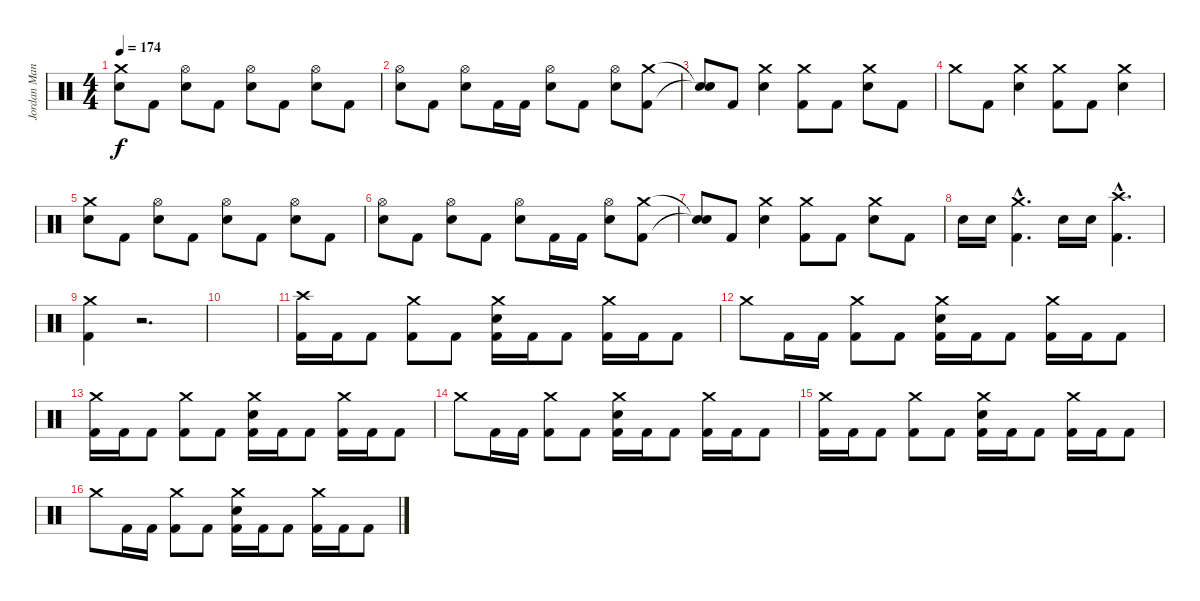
\track ("Jordan Manchino (Drums)" "Jordan Man") {instrument percussion}
\staff {score}
\articulation defaults
\ts (4 4)
\tempo 174
\clef neutral
\ks c
("Crash medium (hit)" "Snare (hit) 2").8{dy f} "Kick (hit) 2".8 ("Hi-Hat (open)" "Snare (hit) 2").8 "Kick (hit) 2".8 ("Hi-Hat (open)" "Snare (hit) 2").8 "Kick (hit) 2".8 ("Hi-Hat (open)" "Snare (hit) 2").8 "Kick (hit) 2".8 |
("Hi-Hat (open)" "Snare (hit) 2").8 "Kick (hit) 2".8 ("Hi-Hat (open)" "Snare (hit) 2").8 "Kick (hit) 2".16 "Kick (hit) 2".16 ("Hi-Hat (open)" "Snare (hit) 2").8 "Kick (hit) 2".8 ("Hi-Hat (open)" "Snare (hit) 2").8 ("Crash medium (hit)" "Kick (hit) 2").8 |
("Snare (hit)"{t} "Snare (hit)"{t}).8 "Kick (hit) 2".8 ("Crash medium (hit)" "Snare (hit) 2").4 ("Crash medium (hit)" "Kick (hit) 2").8 "Kick (hit) 2".8 ("Crash medium (hit)" "Snare (hit) 2").8 "Kick (hit) 2".8 |
"Crash medium (hit)".8 "Kick (hit) 2".8 ("Crash medium (hit)" "Snare (hit) 2").4 ("Crash medium (hit)" "Kick (hit) 2").8 "Kick (hit) 2".8 ("Crash medium (hit)" "Snare (hit) 2").4 |
("Crash medium (hit)" "Snare (hit) 2").8 "Kick (hit) 2".8 ("Hi-Hat (open)" "Snare (hit) 2").8 "Kick (hit) 2".8 ("Hi-Hat (open)" "Snare (hit) 2").8 "Kick (hit) 2".8 ("Hi-Hat (open)" "Snare (hit) 2").8 "Kick (hit) 2".8 |
("Hi-Hat (open)" "Snare (hit) 2").8 "Kick (hit) 2".8 ("Hi-Hat (open)" "Snare (hit) 2").8 "Kick (hit) 2".8 ("Hi-Hat (open)" "Snare (hit) 2").8 "Kick (hit) 2".16 "Kick (hit) 2".16 ("Hi-Hat (open)" "Snare (hit) 2").8 ("Crash medium (hit)" "Kick (hit) 2").8 |
("Snare (hit)"{t} "Snare (hit)"{t}).8 "Kick (hit) 2".8 ("Crash medium (hit)" "Snare (hit) 2").4 ("Crash medium (hit)" "Kick (hit) 2").8 "Kick (hit) 2".8 ("Crash medium (hit)" "Snare (hit) 2").8 "Kick (hit) 2".8 |
"Snare (hit) 2".16 "Snare (hit) 2".16 ("Crash medium (hit)"{hac} "Kick (hit) 2"{hac}).4{d} "Snare (hit) 2".16 "Snare (hit) 2".16 ("Crash high (hit)"{hac} "Kick (hit) 2"{hac}).4{d} |
("Crash medium (hit)" "Kick (hit) 2").4 r.2{d} |
|
("Crash high (hit)" "Kick (hit) 2").16 "Kick (hit) 2".16 "Kick (hit) 2".8 ("Crash medium (hit)" "Kick (hit) 2").8 "Kick (hit) 2".8 ("Crash medium (hit)" "Snare (hit) 2" "Kick (hit) 2").16 "Kick (hit) 2".16 "Kick (hit) 2".8 ("Crash medium (hit)" "Kick (hit) 2").16 "Kick (hit) 2".16 "Kick (hit) 2".8 |
"Crash medium (hit)".8 "Kick (hit) 2".16 "Kick (hit) 2".16 ("Crash medium (hit)" "Kick (hit) 2").8 "Kick (hit) 2".8 ("Crash medium (hit)" "Snare (hit) 2" "Kick (hit) 2").16 "Kick (hit) 2".16 "Kick (hit) 2".8 ("Crash medium (hit)" "Kick (hit) 2").16 "Kick (hit) 2".16 "Kick (hit) 2".8 |
("Crash medium (hit)" "Kick (hit) 2").16 "Kick (hit) 2".16 "Kick (hit) 2".8 ("Crash medium (hit)" "Kick (hit) 2").8 "Kick (hit) 2".8 ("Crash medium (hit)" "Snare (hit) 2" "Kick (hit) 2").16 "Kick (hit) 2".16 "Kick (hit) 2".8 ("Crash medium (hit)" "Kick (hit) 2").16 "Kick (hit) 2".16 "Kick (hit) 2".8 |
"Crash medium (hit)".8 "Kick (hit) 2".16 "Kick (hit) 2".16 ("Crash medium (hit)" "Kick (hit) 2").8 "Kick (hit) 2".8 ("Crash medium (hit)" "Snare (hit) 2" "Kick (hit) 2").16 "Kick (hit) 2".16 "Kick (hit) 2".8 ("Crash medium (hit)" "Kick (hit) 2").16 "Kick (hit) 2".16 "Kick (hit) 2".8 |
("Crash medium (hit)" "Kick (hit) 2").16 "Kick (hit) 2".16 "Kick (hit) 2".8 ("Crash medium (hit)" "Kick (hit) 2").8 "Kick (hit) 2".8 ("Crash medium (hit)" "Snare (hit) 2" "Kick (hit) 2").16 "Kick (hit) 2".16 "Kick (hit) 2".8 ("Crash medium (hit)" "Kick (hit) 2").16 "Kick (hit) 2".16 "Kick (hit) 2".8 |
"Crash medium (hit)".8 "Kick (hit) 2".16 "Kick (hit) 2".16 ("Crash medium (hit)" "Kick (hit) 2").8 "Kick (hit) 2".8 ("Crash medium (hit)" "Snare (hit) 2" "Kick (hit) 2").16 "Kick (hit) 2".16 "Kick (hit) 2".8 ("Crash medium (hit)" "Kick (hit) 2").16 "Kick (hit) 2".16 "Kick (hit) 2".8
